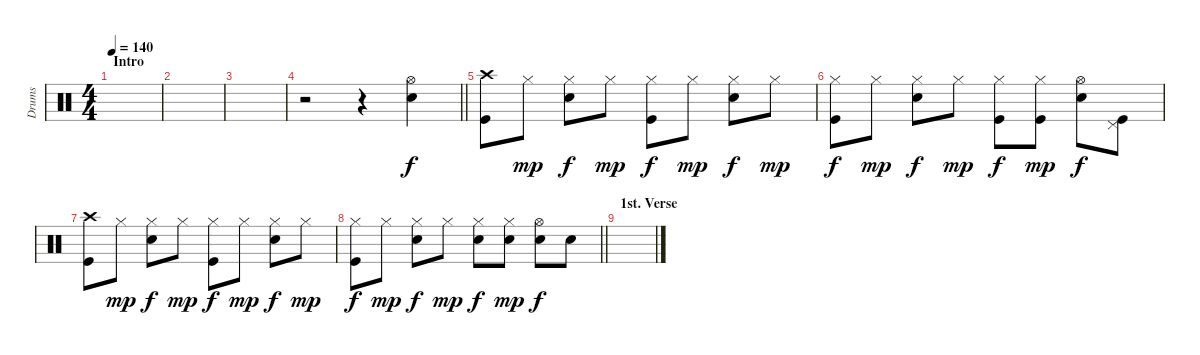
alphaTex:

\track ("Drums" "Drums") {instrument percussion}
\staff {score}
\articulation defaults
\ts (4 4)
\section ("" "Intro")
\tempo 140
\clef neutral
\ks c
|
|
|
\barLineRight lightlight
r.2 r.4 ("Hi-Hat (open)" "Electric Snare (hit)").4 |
("Crash high (hit)" "Kick (hit)").8 "Hi-Hat (closed)".8{dy mp} ("Hi-Hat (closed)" "Electric Snare (hit)").8{dy f} "Hi-Hat (closed)".8{dy mp} ("Hi-Hat (closed)" "Kick (hit)").8{dy f} "Hi-Hat (closed)".8{dy mp} ("Hi-Hat (closed)" "Electric Snare (hit)").8{dy f} "Hi-Hat (closed)".8{dy mp} |
("Hi-Hat (closed)" "Kick (hit)").8{dy f} "Hi-Hat (closed)".8{dy mp} ("Hi-Hat (closed)" "Electric Snare (hit)").8{dy f} "Hi-Hat (closed)".8{dy mp} ("Hi-Hat (closed)" "Kick (hit)").8{dy f} ("Hi-Hat (closed)" "Kick (hit)").8{dy mp} ("Hi-Hat (open)" "Electric Snare (hit)").8{dy f} ("Pedal Hi-Hat (hit)" "Kick (hit)").8 |
("Crash high (hit)" "Kick (hit)").8 "Hi-Hat (closed)".8{dy mp} ("Hi-Hat (closed)" "Electric Snare (hit)").8{dy f} "Hi-Hat (closed)".8{dy mp} ("Hi-Hat (closed)" "Kick (hit)").8{dy f} "Hi-Hat (closed)".8{dy mp} ("Hi-Hat (closed)" "Electric Snare (hit)").8{dy f} "Hi-Hat (closed)".8{dy mp} |
\barLineRight lightlight
("Hi-Hat (closed)" "Kick (hit)").8{dy f} "Hi-Hat (closed)".8{dy mp} ("Hi-Hat (closed)" "Electric Snare (hit)").8{dy f} "Hi-Hat (closed)".8{dy mp} ("Hi-Hat (closed)" "Electric Snare (hit)").8{dy f} ("Hi-Hat (closed)" "Electric Snare (hit)").8{dy mp} ("Hi-Hat (open)" "Electric Snare (hit)").8{dy f} "Electric Snare (hit)".8 |
\section ("" "1st. Verse")
